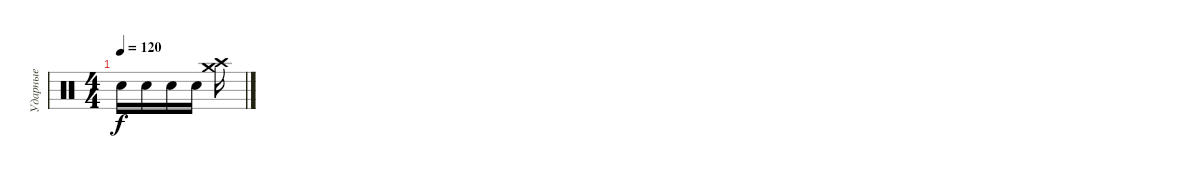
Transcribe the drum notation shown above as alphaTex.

\track ("Ударные" "Ударные") {instrument percussion}
\staff {score}
\articulation defaults
\ts (4 4)
\tempo 120
\clef neutral
\ks c "Electric Snare (hit)".16{dy f} "Electric Snare (hit)".16 "Electric Snare (hit)".16 "Electric Snare (hit)".16
("Crash high (hit)" "Crash medium (hit)").16
